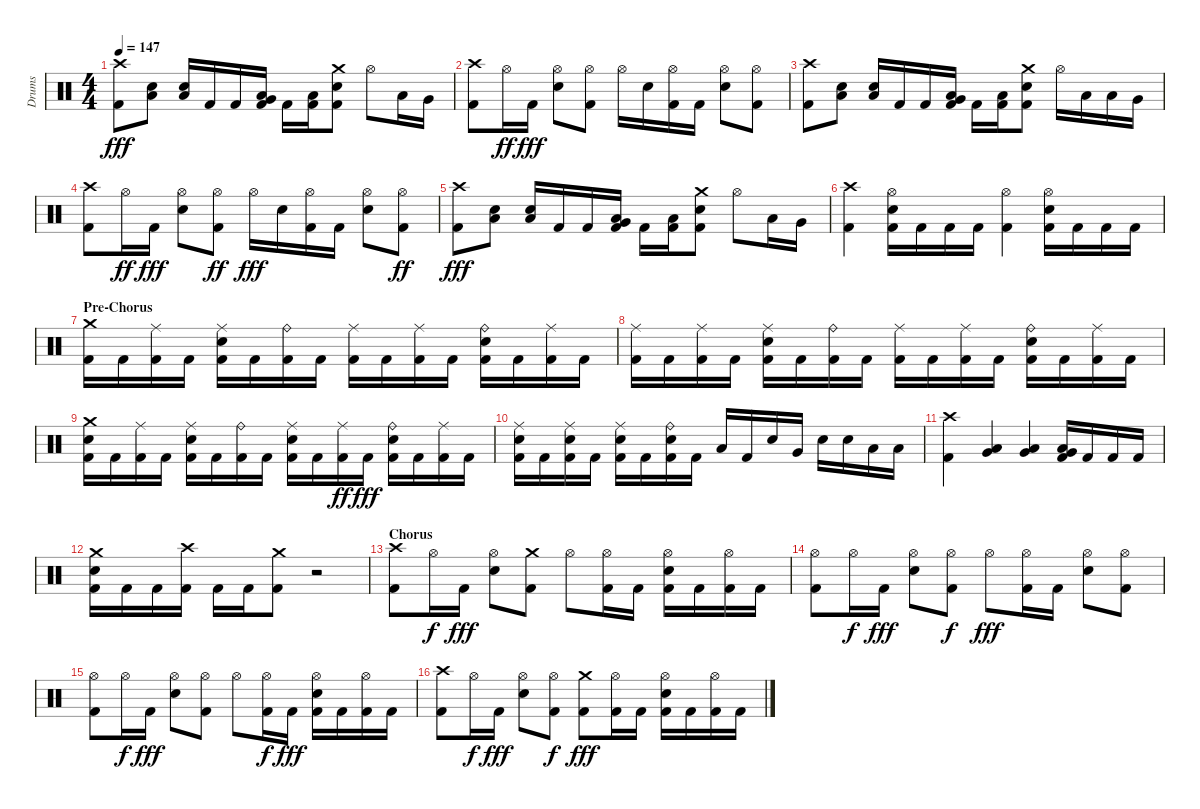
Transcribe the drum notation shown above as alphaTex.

\track ("Drums" "Drums") {instrument percussion}
\staff {score}
\articulation defaults
\ts (4 4)
\tempo 147
\clef neutral
\ks aminor
("Crash high (hit)" "Kick (hit) 2").8{dy fff} ("Low Floor Tom (hit)" "Snare (hit) 2").8 ("Snare (hit) 2" "Low Floor Tom (hit)").16 "Kick (hit) 2".16 "Kick (hit) 2".16 ("Very Low Tom (hit)" "Kick (hit) 2" "Low Floor Tom (hit)").16 "Kick (hit) 2".16 ("Kick (hit) 2" "Low Floor Tom (hit)").16 ("Crash medium (hit)" "Kick (hit) 2" "Snare (hit) 2").8 "Hi-Hat (open)".8 "Low Tom (hit)".16 "Very Low Tom (hit)".16 |
("Kick (hit) 2" "Crash high (hit)").8 "Hi-Hat (open)".16{dy ff} "Kick (hit) 2".16{dy fff} ("Snare (hit) 2" "Hi-Hat (open)").8 ("Kick (hit) 2" "Hi-Hat (open)").8 "Hi-Hat (open)".16 "Snare (hit) 2".16 ("Hi-Hat (open)" "Kick (hit) 2").16 "Kick (hit) 2".16 ("Hi-Hat (open)" "Snare (hit) 2").8 ("Kick (hit) 2" "Hi-Hat (open)").8 |
("Kick (hit) 2" "Crash high (hit)").8 ("Snare (hit) 2" "Low Floor Tom (hit)").8 ("Snare (hit) 2" "Low Floor Tom (hit)").16 "Kick (hit) 2".16 "Kick (hit) 2".16 ("Kick (hit) 2" "Low Floor Tom (hit)" "Very Low Tom (hit)").16 "Kick (hit) 2".16 ("Kick (hit) 2" "Low Floor Tom (hit)").16 ("Snare (hit) 2" "Crash medium (hit)" "Kick (hit) 2").8 "Hi-Hat (open)".16 "Low Tom (hit)".16 "Low Tom (hit)".16 "Very Low Tom (hit)".16 |
("Kick (hit) 2" "Crash high (hit)").8 "Hi-Hat (open)".16{dy ff} "Kick (hit) 2".16{dy fff} ("Hi-Hat (open)" "Snare (hit) 2").8 ("Hi-Hat (open)" "Kick (hit) 2").8{dy ff} "Hi-Hat (open)".16{dy fff} "Snare (hit) 2".16 ("Hi-Hat (open)" "Kick (hit) 2").16 "Kick (hit) 2".16 ("Snare (hit) 2" "Hi-Hat (open)").8 ("Kick (hit) 2" "Hi-Hat (open)").8{dy ff} |
("Kick (hit) 2" "Crash high (hit)").8{dy fff} ("Snare (hit) 2" "Low Floor Tom (hit)").8 ("Snare (hit) 2" "Low Floor Tom (hit)").16 "Kick (hit) 2".16 "Kick (hit) 2".16 ("Kick (hit) 2" "Low Floor Tom (hit)" "Very Low Tom (hit)").16 "Kick (hit) 2".16 ("Kick (hit) 2" "Low Floor Tom (hit)").16 ("Kick (hit) 2" "Snare (hit) 2" "Crash medium (hit)").8 "Hi-Hat (open)".8 "Low Tom (hit)".16 "Very Low Tom (hit)".16 |
("Crash high (hit)" "Kick (hit) 2").4 ("Hi-Hat (open)" "Kick (hit) 2" "Snare (hit) 2").16 "Kick (hit) 2".16 "Kick (hit) 2".16 "Kick (hit) 2".16 ("Kick (hit) 2" "Hi-Hat (open)").4 ("Snare (hit) 2" "Kick (hit) 2" "Hi-Hat (open)").16 "Kick (hit) 2".16 "Kick (hit) 2".16 "Kick (hit) 2".16 |
\section ("" "Pre-Chorus")
("Kick (hit) 2" "Crash medium (hit)").16 "Kick (hit) 2".16 ("Kick (hit) 2" "Ride (middle)").16 "Kick (hit) 2".16 ("Ride (middle)" "Kick (hit) 2" "Snare (hit) 2").16 "Kick (hit) 2".16 ("Kick (hit) 2" "Ride (bell)").16 "Kick (hit) 2".16 ("Kick (hit) 2" "Ride (middle)").16 "Kick (hit) 2".16 ("Kick (hit) 2" "Ride (middle)").16 "Kick (hit) 2".16 ("Ride (bell)" "Snare (hit) 2" "Kick (hit) 2").16 "Kick (hit) 2".16 ("Kick (hit) 2" "Ride (middle)").16 "Kick (hit) 2".16 |
("Kick (hit) 2" "Ride (middle)").16 "Kick (hit) 2".16 ("Kick (hit) 2" "Ride (middle)").16 "Kick (hit) 2".16 ("Snare (hit) 2" "Kick (hit) 2" "Ride (middle)").16 "Kick (hit) 2".16 ("Kick (hit) 2" "Ride (bell)").16 "Kick (hit) 2".16 ("Kick (hit) 2" "Ride (middle)").16 "Kick (hit) 2".16 ("Kick (hit) 2" "Ride (middle)").16 "Kick (hit) 2".16 ("Snare (hit) 2" "Kick (hit) 2" "Ride (bell)").16 "Kick (hit) 2".16 ("Kick (hit) 2" "Ride (middle)").16 "Kick (hit) 2".16 |
("Kick (hit) 2" "Snare (hit) 2" "Crash medium (hit)").16 "Kick (hit) 2".16 ("Ride (middle)" "Kick (hit) 2").16 "Kick (hit) 2".16 ("Kick (hit) 2" "Snare (hit) 2" "Ride (middle)").16 "Kick (hit) 2".16 ("Ride (bell)" "Kick (hit) 2").16 "Kick (hit) 2".16 ("Kick (hit) 2" "Snare (hit) 2" "Ride (middle)").16 "Kick (hit) 2".16 ("Ride (middle)" "Kick (hit) 2").16{dy ff} "Kick (hit) 2".16{dy fff} ("Kick (hit) 2" "Snare (hit) 2" "Ride (bell)").16 "Kick (hit) 2".16 ("Ride (middle)" "Kick (hit) 2").16 "Kick (hit) 2".16 |
("Kick (hit) 2" "Snare (hit) 2" "Ride (middle)").16 "Kick (hit) 2".16 ("Kick (hit) 2" "Snare (hit) 2" "Ride (middle)").16 "Kick (hit) 2".16 ("Ride (middle)" "Kick (hit) 2" "Snare (hit) 2").16 "Kick (hit) 2".16 ("Kick (hit) 2" "Snare (hit) 2" "Ride (bell)").16 "Kick (hit) 2".16 "Low Tom (hit)".16 "Kick (hit) 2".16 "Snare (hit) 2".16 "Very Low Tom (hit)".16 "Snare (hit) 2".16 "Snare (hit) 2".16 "Low Floor Tom (hit)".16 "Low Floor Tom (hit)".16 |
("Kick (hit) 2" "Crash high (hit)").4 ("Very Low Tom (hit)" "Low Tom (hit)").4 ("Low Tom (hit)" "Very Low Tom (hit)").4 ("Kick (hit) 2" "Low Tom (hit)" "Very Low Tom (hit)").16 "Kick (hit) 2".16 "Kick (hit) 2".16 "Kick (hit) 2".16 |
("Crash medium (hit)" "Kick (hit) 2" "Hand Clap (hit)").16 "Kick (hit) 2".16 "Kick (hit) 2".16 ("Kick (hit) 2" "Crash high (hit)").16 "Kick (hit) 2".16 "Kick (hit) 2".16 ("Crash medium (hit)" "Kick (hit) 2").8 r.2 |
\section ("" "Chorus")
("Kick (hit) 2" "Crash high (hit)").8 "Hi-Hat (open)".16{dy f} "Kick (hit) 2".16{dy fff} ("Snare (hit) 2" "Hi-Hat (open)").8 ("Kick (hit) 2" "Crash medium (hit)").8 "Hi-Hat (open)".8 ("Kick (hit) 2" "Hi-Hat (open)").16 "Kick (hit) 2".16 ("Kick (hit) 2" "Snare (hit) 2" "Hi-Hat (open)").16 "Kick (hit) 2".16 ("Hi-Hat (open)" "Kick (hit) 2").16 "Kick (hit) 2".16 |
("Kick (hit) 2" "Hi-Hat (open)").8 "Hi-Hat (open)".16{dy f} "Kick (hit) 2".16{dy fff} ("Snare (hit) 2" "Hi-Hat (open)").8 ("Kick (hit) 2" "Hi-Hat (open)").8{dy f} "Hi-Hat (open)".8{dy fff} ("Kick (hit) 2" "Hi-Hat (open)").16 "Kick (hit) 2".16 ("Hi-Hat (open)" "Snare (hit) 2").8 ("Kick (hit) 2" "Hi-Hat (open)").8 |
("Kick (hit) 2" "Hi-Hat (open)").8 "Hi-Hat (open)".16{dy f} "Kick (hit) 2".16{dy fff} ("Hi-Hat (open)" "Snare (hit) 2").8 ("Kick (hit) 2" "Hi-Hat (open)").8 "Hi-Hat (open)".8 ("Hi-Hat (open)" "Kick (hit) 2").16{dy f} "Kick (hit) 2".16{dy fff} ("Kick (hit) 2" "Snare (hit) 2" "Hi-Hat (open)").16 "Kick (hit) 2".16 ("Kick (hit) 2" "Hi-Hat (open)").16 "Kick (hit) 2".16 |
("Kick (hit) 2" "Crash high (hit)").8 "Hi-Hat (open)".16{dy f} "Kick (hit) 2".16{dy fff} ("Hi-Hat (open)" "Snare (hit) 2").8 ("Kick (hit) 2" "Hi-Hat (open)").8{dy f} ("Kick (hit) 2" "Crash medium (hit)").8{dy fff} ("Kick (hit) 2" "Hi-Hat (open)").16 "Kick (hit) 2".16 ("Snare (hit) 2" "Kick (hit) 2" "Hi-Hat (open)").16 "Kick (hit) 2".16 ("Kick (hit) 2" "Hi-Hat (open)").16 "Kick (hit) 2".16
